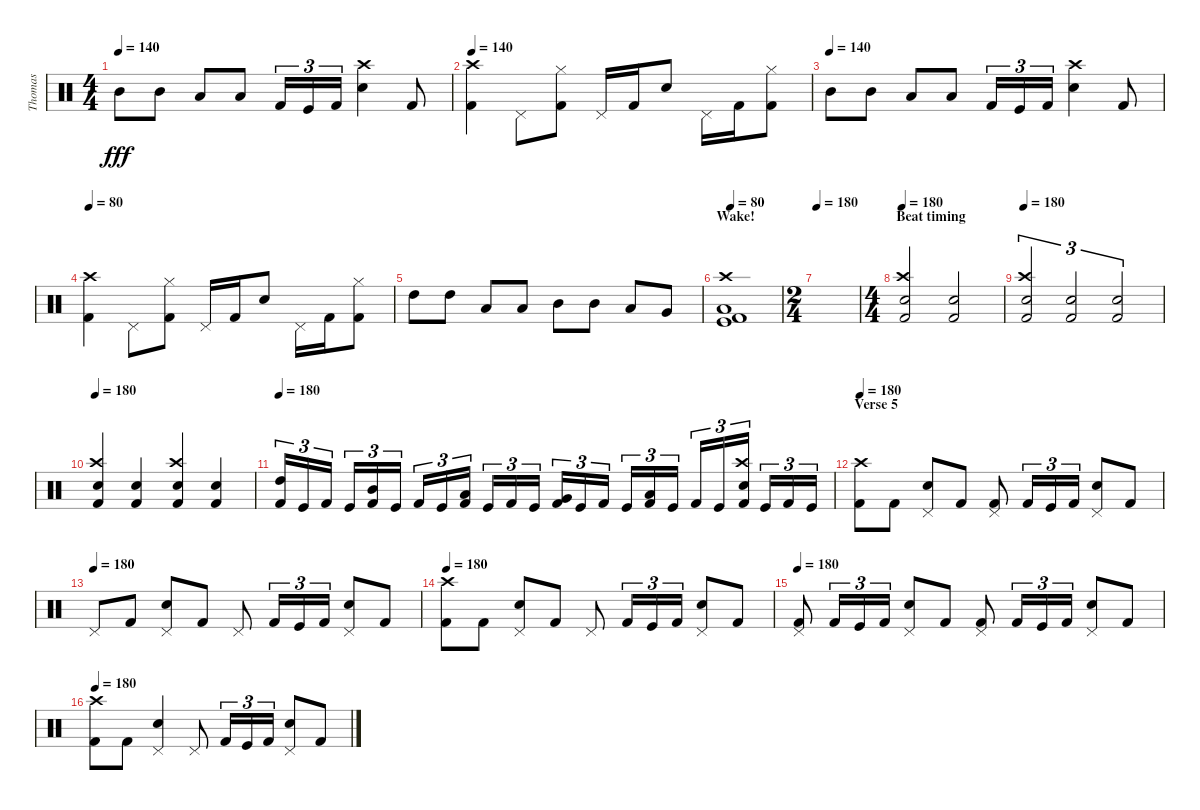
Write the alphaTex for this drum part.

\track ("Thomas" "Thomas") {instrument percussion}
\staff {score}
\articulation defaults
\ts (4 4)
\tempo 140
\clef neutral
\ks c "Mid Tom (hit)".8{dy fff} "Mid Tom (hit)".8 "Low Tom (hit)".8 "Low Tom (hit)".8 "Kick (hit) 2".16{tu (3 2)} "Kick (hit)".16{tu (3 2)} "Kick (hit) 2".16{tu (3 2)}
("Crash high (hit)" "Snare (hit) 2").4 "Kick (hit) 2".8 |
\tempo 140
("Crash high (hit)" "Kick (hit) 2").4 "Pedal Hi-Hat (hit)".8 ("Hi-Hat (closed)" "Kick (hit) 2").8 "Pedal Hi-Hat (hit)".16 "Kick (hit) 2".16 "Snare (hit) 2".8 "Pedal Hi-Hat (hit)".16 "Kick (hit) 2".16 ("Hi-Hat (closed)" "Kick (hit) 2").8 |
\tempo (140)
"Mid Tom (hit)".8 "Mid Tom (hit)".8 "Low Tom (hit)".8 "Low Tom (hit)".8 "Kick (hit) 2".16{tu (3 2)} "Kick (hit)".16{tu (3 2)} "Kick (hit) 2".16{tu (3 2)} ("Crash high (hit)" "Snare (hit) 2").4 "Kick (hit) 2".8 |
\tempo 80
("Crash high (hit)" "Kick (hit) 2").4 "Pedal Hi-Hat (hit)".8 ("Hi-Hat (closed)" "Kick (hit) 2").8 "Pedal Hi-Hat (hit)".16 "Kick (hit) 2".16 "Snare (hit) 2".8 "Pedal Hi-Hat (hit)".16 "Kick (hit) 2".16 ("Hi-Hat (closed)" "Kick (hit) 2").8 |
"High Tom (hit)".8 "High Tom (hit)".8 "Low Tom (hit)".8 "Low Tom (hit)".8 "Mid Tom (hit)".8 "Mid Tom (hit)".8 "Low Tom (hit)".8 "Very Low Tom (hit)".8 |
\section ("" "Wake!")
\tempo 80
("Crash high (hit)" "Low Floor Tom (hit)" "Kick (hit)" "Kick (hit) 2").1 |
\ts (2 4)
\tempo 180
|
\ts (4 4)
\section ("" "Beat timing")
\tempo 180
("Crash high (hit)" "Snare (hit) 2" "Kick (hit) 2").2 ("Snare (hit) 2" "Kick (hit) 2").2 |
\tempo 180
("Crash high (hit)" "Snare (hit) 2" "Kick (hit) 2").2{tu (3 2)} ("Snare (hit) 2" "Kick (hit) 2").2{tu (3 2)} ("Snare (hit) 2" "Kick (hit) 2").2{tu (3 2)} |
\tempo 180
("Crash high (hit)" "Snare (hit) 2" "Kick (hit) 2").4 ("Snare (hit) 2" "Kick (hit) 2").4 ("Crash high (hit)" "Snare (hit) 2" "Kick (hit) 2").4 ("Snare (hit) 2" "Kick (hit) 2").4 |
\tempo 180
("High Tom (hit)" "Kick (hit) 2").16{tu (3 2)} "Kick (hit)".16{tu (3 2)} "Kick (hit) 2".16{tu (3 2)} "Kick (hit)".16{tu (3 2)} ("Mid Tom (hit)" "Kick (hit) 2").16{tu (3 2)} "Kick (hit)".16{tu (3 2)} "Kick (hit) 2".16{tu (3 2)} "Kick (hit)".16{tu (3 2)} ("Low Tom (hit)" "Kick (hit) 2").16{tu (3 2)} "Kick (hit)".16{tu (3 2)} "Kick (hit) 2".16{tu (3 2)} "Kick (hit)".16{tu (3 2)} ("Very Low Tom (hit)" "Kick (hit) 2").16{tu (3 2)} "Kick (hit)".16{tu (3 2)} "Kick (hit) 2".16{tu (3 2)} "Kick (hit)".16{tu (3 2)} ("Low Floor Tom (hit)" "Kick (hit) 2").16{tu (3 2)} "Kick (hit)".16{tu (3 2)} "Kick (hit) 2".16{tu (3 2)} "Kick (hit)".16{tu (3 2)} ("Crash high (hit)" "Snare (hit) 2" "Kick (hit) 2").16{tu (3 2)} "Kick (hit)".16{tu (3 2)} "Kick (hit) 2".16{tu (3 2)} "Kick (hit)".16{tu (3 2)} |
\section ("" "Verse 5")
\tempo 180
("Crash high (hit)" "Kick (hit) 2").8 "Kick (hit) 2".8 ("Pedal Hi-Hat (hit)" "Snare (hit) 2").8 "Kick (hit) 2".8 ("Pedal Hi-Hat (hit)" "Kick (hit) 2").8 "Kick (hit) 2".16{tu (3 2)} "Kick (hit)".16{tu (3 2)} "Kick (hit) 2".16{tu (3 2)} ("Pedal Hi-Hat (hit)" "Snare (hit) 2").8 "Kick (hit) 2".8 |
\tempo (180)
"Pedal Hi-Hat (hit)".8 "Kick (hit) 2".8 ("Pedal Hi-Hat (hit)" "Snare (hit) 2").8 "Kick (hit) 2".8 "Pedal Hi-Hat (hit)".8 "Kick (hit) 2".16{tu (3 2)} "Kick (hit)".16{tu (3 2)} "Kick (hit) 2".16{tu (3 2)} ("Pedal Hi-Hat (hit)" "Snare (hit) 2").8 "Kick (hit) 2".8 |
\tempo 180
("Crash high (hit)" "Kick (hit) 2").8 "Kick (hit) 2".8 ("Pedal Hi-Hat (hit)" "Snare (hit) 2").8 "Kick (hit) 2".8 "Pedal Hi-Hat (hit)".8 "Kick (hit) 2".16{tu (3 2)} "Kick (hit)".16{tu (3 2)} "Kick (hit) 2".16{tu (3 2)} ("Pedal Hi-Hat (hit)" "Snare (hit) 2").8 "Kick (hit) 2".8 |
\tempo 180
("Pedal Hi-Hat (hit)" "Kick (hit) 2").8 "Kick (hit) 2".16{tu (3 2)} "Kick (hit)".16{tu (3 2)} "Kick (hit) 2".16{tu (3 2)} ("Pedal Hi-Hat (hit)" "Snare (hit) 2").8 "Kick (hit) 2".8 ("Pedal Hi-Hat (hit)" "Kick (hit) 2").8 "Kick (hit) 2".16{tu (3 2)} "Kick (hit)".16{tu (3 2)} "Kick (hit) 2".16{tu (3 2)} ("Pedal Hi-Hat (hit)" "Snare (hit) 2").8 "Kick (hit) 2".8 |
\tempo 180
("Crash high (hit)" "Kick (hit) 2").8 "Kick (hit) 2".8 ("Pedal Hi-Hat (hit)" "Snare (hit) 2").4 "Pedal Hi-Hat (hit)".8 "Kick (hit) 2".16{tu (3 2)} "Kick (hit)".16{tu (3 2)} "Kick (hit) 2".16{tu (3 2)} ("Pedal Hi-Hat (hit)" "Snare (hit) 2").8 "Kick (hit) 2".8
